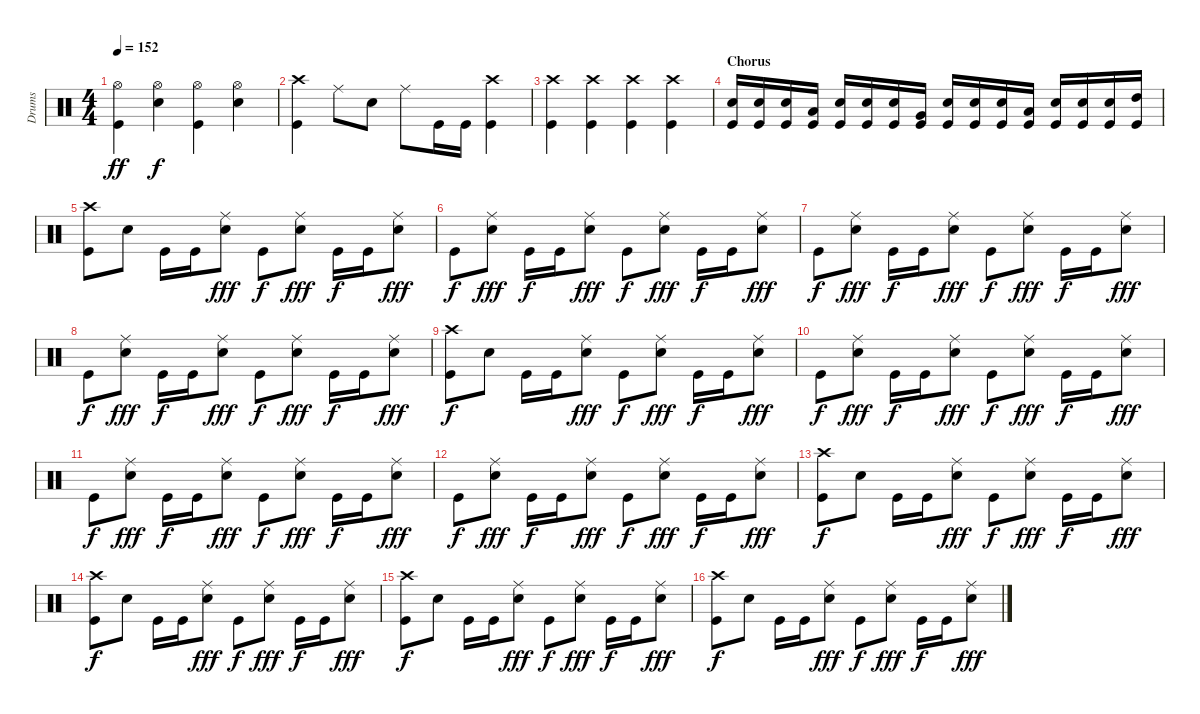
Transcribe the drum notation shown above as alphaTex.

\track ("Drums" "Drums") {instrument percussion}
\staff {score}
\articulation defaults
\ts (4 4)
\tempo 152
\clef neutral
\ks c
("Hi-Hat (open)" "Kick (hit)").4{dy ff} ("Hi-Hat (open)" "Snare (hit) 2").4{dy f} ("Hi-Hat (open)" "Kick (hit)").4 ("Hi-Hat (open)" "Snare (hit) 2").4 |
("Crash high (hit)" "Kick (hit)").4 "Ride (middle)".8 "Snare (hit) 2".8 "Ride (middle)".8 "Kick (hit)".16 "Kick (hit)".16 ("Crash high (hit)" "Kick (hit)").4 |
("Crash high (hit)" "Kick (hit)").4 ("Crash high (hit)" "Kick (hit)").4 ("Crash high (hit)" "Kick (hit)").4 ("Crash high (hit)" "Kick (hit)").4 |
\section ("" "Chorus")
("Snare (hit) 2" "Kick (hit)").16 ("Snare (hit) 2" "Kick (hit)").16 ("Snare (hit) 2" "Kick (hit)").16 ("Low Floor Tom (hit)" "Kick (hit)").16 ("Snare (hit) 2" "Kick (hit)").16 ("Snare (hit) 2" "Kick (hit)").16 ("Snare (hit) 2" "Kick (hit)").16 ("Very Low Tom (hit)" "Kick (hit)").16 ("Snare (hit) 2" "Kick (hit)").16 ("Snare (hit) 2" "Kick (hit)").16 ("Snare (hit) 2" "Kick (hit)").16 ("Low Tom (hit)" "Kick (hit)").16 ("Snare (hit) 2" "Kick (hit)").16 ("Snare (hit) 2" "Kick (hit)").16 ("Snare (hit) 2" "Kick (hit)").16 ("High Tom (hit)" "Kick (hit)").16 |
("Crash high (hit)" "Kick (hit)").8 "Snare (hit) 2".8 "Kick (hit)".16 "Kick (hit)".16 ("Ride (middle)" "Snare (hit) 2").8{dy fff} "Kick (hit)".8{dy f} ("Ride (middle)" "Snare (hit) 2").8{dy fff} "Kick (hit)".16{dy f} "Kick (hit)".16 ("Ride (middle)" "Snare (hit) 2").8{dy fff} |
"Kick (hit)".8{dy f} ("Ride (middle)" "Snare (hit) 2").8{dy fff} "Kick (hit)".16{dy f} "Kick (hit)".16 ("Ride (middle)" "Snare (hit) 2").8{dy fff} "Kick (hit)".8{dy f} ("Ride (middle)" "Snare (hit) 2").8{dy fff} "Kick (hit)".16{dy f} "Kick (hit)".16 ("Ride (middle)" "Snare (hit) 2").8{dy fff} |
"Kick (hit)".8{dy f} ("Ride (middle)" "Snare (hit) 2").8{dy fff} "Kick (hit)".16{dy f} "Kick (hit)".16 ("Ride (middle)" "Snare (hit) 2").8{dy fff} "Kick (hit)".8{dy f} ("Ride (middle)" "Snare (hit) 2").8{dy fff} "Kick (hit)".16{dy f} "Kick (hit)".16 ("Ride (middle)" "Snare (hit) 2").8{dy fff} |
"Kick (hit)".8{dy f} ("Ride (middle)" "Snare (hit) 2").8{dy fff} "Kick (hit)".16{dy f} "Kick (hit)".16 ("Ride (middle)" "Snare (hit) 2").8{dy fff} "Kick (hit)".8{dy f} ("Ride (middle)" "Snare (hit) 2").8{dy fff} "Kick (hit)".16{dy f} "Kick (hit)".16 ("Ride (middle)" "Snare (hit) 2").8{dy fff} |
("Crash high (hit)" "Kick (hit)").8{dy f} "Snare (hit) 2".8 "Kick (hit)".16 "Kick (hit)".16 ("Ride (middle)" "Snare (hit) 2").8{dy fff} "Kick (hit)".8{dy f} ("Ride (middle)" "Snare (hit) 2").8{dy fff} "Kick (hit)".16{dy f} "Kick (hit)".16 ("Ride (middle)" "Snare (hit) 2").8{dy fff} |
"Kick (hit)".8{dy f} ("Ride (middle)" "Snare (hit) 2").8{dy fff} "Kick (hit)".16{dy f} "Kick (hit)".16 ("Ride (middle)" "Snare (hit) 2").8{dy fff} "Kick (hit)".8{dy f} ("Ride (middle)" "Snare (hit) 2").8{dy fff} "Kick (hit)".16{dy f} "Kick (hit)".16 ("Ride (middle)" "Snare (hit) 2").8{dy fff} |
"Kick (hit)".8{dy f} ("Ride (middle)" "Snare (hit) 2").8{dy fff} "Kick (hit)".16{dy f} "Kick (hit)".16 ("Ride (middle)" "Snare (hit) 2").8{dy fff} "Kick (hit)".8{dy f} ("Ride (middle)" "Snare (hit) 2").8{dy fff} "Kick (hit)".16{dy f} "Kick (hit)".16 ("Ride (middle)" "Snare (hit) 2").8{dy fff} |
"Kick (hit)".8{dy f} ("Ride (middle)" "Snare (hit) 2").8{dy fff} "Kick (hit)".16{dy f} "Kick (hit)".16 ("Ride (middle)" "Snare (hit) 2").8{dy fff} "Kick (hit)".8{dy f} ("Ride (middle)" "Snare (hit) 2").8{dy fff} "Kick (hit)".16{dy f} "Kick (hit)".16 ("Ride (middle)" "Snare (hit) 2").8{dy fff} |
("Crash high (hit)" "Kick (hit)").8{dy f} "Snare (hit) 2".8 "Kick (hit)".16 "Kick (hit)".16 ("Ride (middle)" "Snare (hit) 2").8{dy fff} "Kick (hit)".8{dy f} ("Ride (middle)" "Snare (hit) 2").8{dy fff} "Kick (hit)".16{dy f} "Kick (hit)".16 ("Ride (middle)" "Snare (hit) 2").8{dy fff} |
("Crash high (hit)" "Kick (hit)").8{dy f} "Snare (hit) 2".8 "Kick (hit)".16 "Kick (hit)".16 ("Ride (middle)" "Snare (hit) 2").8{dy fff} "Kick (hit)".8{dy f} ("Ride (middle)" "Snare (hit) 2").8{dy fff} "Kick (hit)".16{dy f} "Kick (hit)".16 ("Ride (middle)" "Snare (hit) 2").8{dy fff} |
("Crash high (hit)" "Kick (hit)").8{dy f} "Snare (hit) 2".8 "Kick (hit)".16 "Kick (hit)".16 ("Ride (middle)" "Snare (hit) 2").8{dy fff} "Kick (hit)".8{dy f} ("Ride (middle)" "Snare (hit) 2").8{dy fff} "Kick (hit)".16{dy f} "Kick (hit)".16 ("Ride (middle)" "Snare (hit) 2").8{dy fff} |
("Crash high (hit)" "Kick (hit)").8{dy f} "Snare (hit) 2".8 "Kick (hit)".16 "Kick (hit)".16 ("Ride (middle)" "Snare (hit) 2").8{dy fff} "Kick (hit)".8{dy f} ("Ride (middle)" "Snare (hit) 2").8{dy fff} "Kick (hit)".16{dy f} "Kick (hit)".16 ("Ride (middle)" "Snare (hit) 2").8{dy fff}
